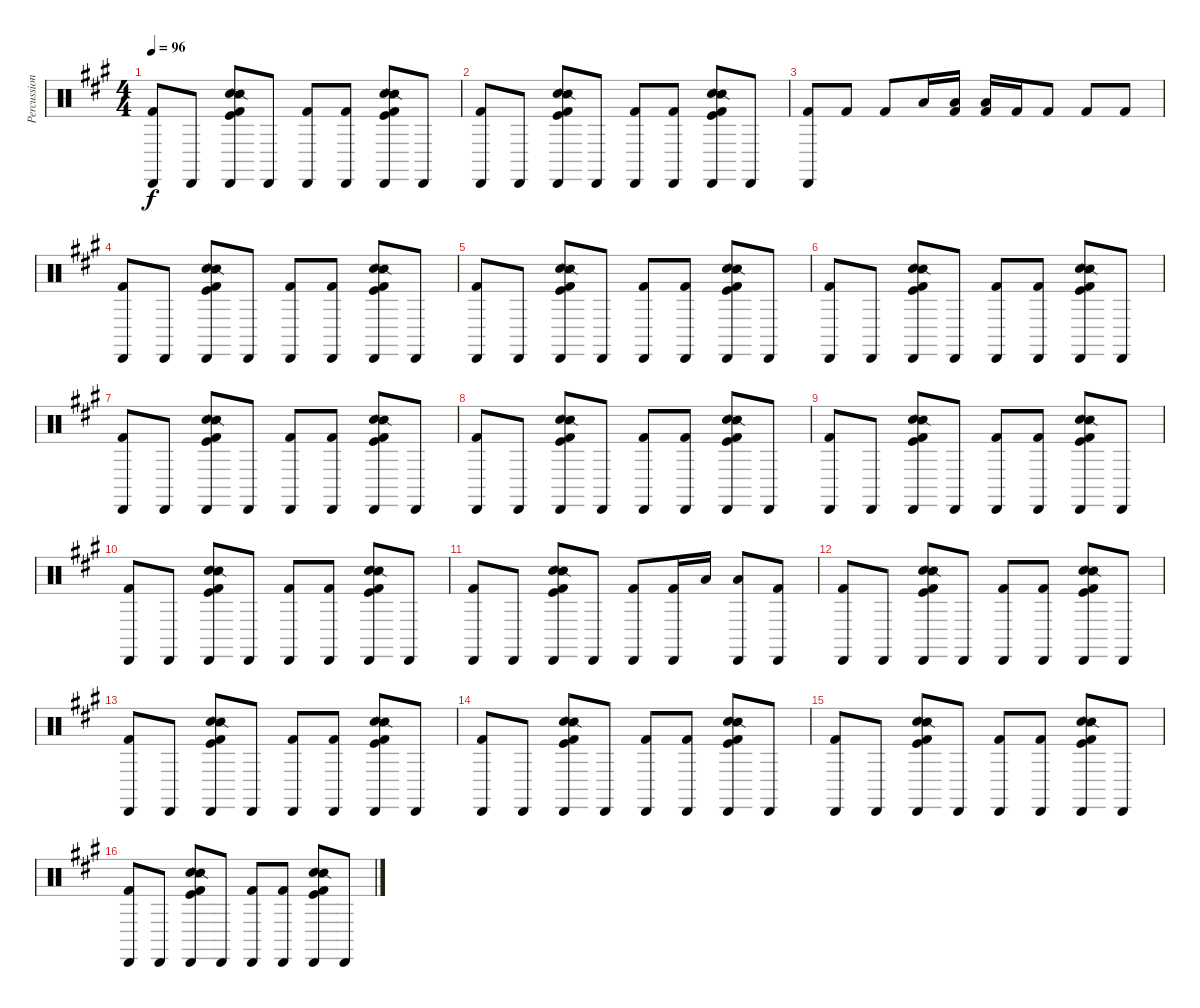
\track ("Percussion" "Percussion") {instrument percussion}
\staff {score}
\articulation defaults
\ts (4 4)
\tempo 96
\clef neutral
\ks a
("Kick (hit) 2" "Cabasa (hit)").8{dy f} "Cabasa (hit)".8 ("Hand Clap (hit)" "Snare (side stick) 2" "Kick (hit) 2" "Kick (hit)" "Cabasa (hit)").8 "Cabasa (hit)".8 ("Kick (hit) 2" "Cabasa (hit)").8 ("Kick (hit) 2" "Cabasa (hit)").8 ("Hand Clap (hit)" "Snare (side stick) 2" "Kick (hit) 2" "Kick (hit)" "Cabasa (hit)").8 "Cabasa (hit)".8 |
("Kick (hit) 2" "Cabasa (hit)").8 "Cabasa (hit)".8 ("Hand Clap (hit)" "Snare (side stick) 2" "Kick (hit) 2" "Kick (hit)" "Cabasa (hit)").8 "Cabasa (hit)".8 ("Kick (hit) 2" "Cabasa (hit)").8 ("Kick (hit) 2" "Cabasa (hit)").8 ("Hand Clap (hit)" "Snare (side stick) 2" "Kick (hit) 2" "Kick (hit)" "Cabasa (hit)").8 "Cabasa (hit)".8 |
("Kick (hit) 2" "Cabasa (hit)").8 "Kick (hit) 2".8 "Kick (hit) 2".8 "Low Floor Tom (hit)".16 ("Kick (hit) 2" "Low Floor Tom (hit)").16 ("Kick (hit) 2" "Low Floor Tom (hit)").16 "Kick (hit) 2".16 "Kick (hit) 2".8 "Kick (hit) 2".8 "Kick (hit) 2".8 |
("Kick (hit) 2" "Cabasa (hit)").8 "Cabasa (hit)".8 ("Hand Clap (hit)" "Snare (side stick) 2" "Kick (hit) 2" "Kick (hit)" "Cabasa (hit)").8 "Cabasa (hit)".8 ("Kick (hit) 2" "Cabasa (hit)").8 ("Kick (hit) 2" "Cabasa (hit)").8 ("Hand Clap (hit)" "Snare (side stick) 2" "Kick (hit) 2" "Kick (hit)" "Cabasa (hit)").8 "Cabasa (hit)".8 |
("Kick (hit) 2" "Cabasa (hit)").8 "Cabasa (hit)".8 ("Hand Clap (hit)" "Snare (side stick) 2" "Kick (hit) 2" "Kick (hit)" "Cabasa (hit)").8 "Cabasa (hit)".8 ("Kick (hit) 2" "Cabasa (hit)").8 ("Kick (hit) 2" "Cabasa (hit)").8 ("Hand Clap (hit)" "Snare (side stick) 2" "Kick (hit) 2" "Kick (hit)" "Cabasa (hit)").8 "Cabasa (hit)".8 |
("Kick (hit) 2" "Cabasa (hit)").8 "Cabasa (hit)".8 ("Hand Clap (hit)" "Snare (side stick) 2" "Kick (hit) 2" "Kick (hit)" "Cabasa (hit)").8 "Cabasa (hit)".8 ("Kick (hit) 2" "Cabasa (hit)").8 ("Kick (hit) 2" "Cabasa (hit)").8 ("Hand Clap (hit)" "Snare (side stick) 2" "Kick (hit) 2" "Kick (hit)" "Cabasa (hit)").8 "Cabasa (hit)".8 |
("Kick (hit) 2" "Cabasa (hit)").8 "Cabasa (hit)".8 ("Hand Clap (hit)" "Snare (side stick) 2" "Kick (hit) 2" "Kick (hit)" "Cabasa (hit)").8 "Cabasa (hit)".8 ("Kick (hit) 2" "Cabasa (hit)").8 ("Kick (hit) 2" "Cabasa (hit)").8 ("Hand Clap (hit)" "Snare (side stick) 2" "Kick (hit) 2" "Kick (hit)" "Cabasa (hit)").8 "Cabasa (hit)".8 |
("Kick (hit) 2" "Cabasa (hit)").8 "Cabasa (hit)".8 ("Hand Clap (hit)" "Snare (side stick) 2" "Kick (hit) 2" "Kick (hit)" "Cabasa (hit)").8 "Cabasa (hit)".8 ("Kick (hit) 2" "Cabasa (hit)").8 ("Kick (hit) 2" "Cabasa (hit)").8 ("Hand Clap (hit)" "Snare (side stick) 2" "Kick (hit) 2" "Kick (hit)" "Cabasa (hit)").8 "Cabasa (hit)".8 |
("Kick (hit) 2" "Cabasa (hit)").8 "Cabasa (hit)".8 ("Hand Clap (hit)" "Snare (side stick) 2" "Kick (hit) 2" "Kick (hit)" "Cabasa (hit)").8 "Cabasa (hit)".8 ("Kick (hit) 2" "Cabasa (hit)").8 ("Kick (hit) 2" "Cabasa (hit)").8 ("Hand Clap (hit)" "Snare (side stick) 2" "Kick (hit) 2" "Kick (hit)" "Cabasa (hit)").8 "Cabasa (hit)".8 |
("Kick (hit) 2" "Cabasa (hit)").8 "Cabasa (hit)".8 ("Hand Clap (hit)" "Snare (side stick) 2" "Kick (hit) 2" "Kick (hit)" "Cabasa (hit)").8 "Cabasa (hit)".8 ("Kick (hit) 2" "Cabasa (hit)").8 ("Kick (hit) 2" "Cabasa (hit)").8 ("Hand Clap (hit)" "Snare (side stick) 2" "Kick (hit) 2" "Kick (hit)" "Cabasa (hit)").8 "Cabasa (hit)".8 |
("Kick (hit) 2" "Cabasa (hit)").8 "Cabasa (hit)".8 ("Hand Clap (hit)" "Snare (side stick) 2" "Kick (hit) 2" "Kick (hit)" "Cabasa (hit)").8 "Cabasa (hit)".8 ("Kick (hit) 2" "Cabasa (hit)").8 ("Kick (hit) 2" "Cabasa (hit)").16 "Low Floor Tom (hit)".16 ("Low Floor Tom (hit)" "Cabasa (hit)").8 ("Kick (hit) 2" "Cabasa (hit)").8 |
("Kick (hit) 2" "Cabasa (hit)").8 "Cabasa (hit)".8 ("Hand Clap (hit)" "Snare (side stick) 2" "Kick (hit) 2" "Kick (hit)" "Cabasa (hit)").8 "Cabasa (hit)".8 ("Kick (hit) 2" "Cabasa (hit)").8 ("Kick (hit) 2" "Cabasa (hit)").8 ("Hand Clap (hit)" "Snare (side stick) 2" "Kick (hit) 2" "Kick (hit)" "Cabasa (hit)").8 "Cabasa (hit)".8 |
("Kick (hit) 2" "Cabasa (hit)").8 "Cabasa (hit)".8 ("Hand Clap (hit)" "Snare (side stick) 2" "Kick (hit) 2" "Kick (hit)" "Cabasa (hit)").8 "Cabasa (hit)".8 ("Kick (hit) 2" "Cabasa (hit)").8 ("Kick (hit) 2" "Cabasa (hit)").8 ("Hand Clap (hit)" "Snare (side stick) 2" "Kick (hit) 2" "Kick (hit)" "Cabasa (hit)").8 "Cabasa (hit)".8 |
("Kick (hit) 2" "Cabasa (hit)").8 "Cabasa (hit)".8 ("Hand Clap (hit)" "Snare (side stick) 2" "Kick (hit) 2" "Kick (hit)" "Cabasa (hit)").8 "Cabasa (hit)".8 ("Kick (hit) 2" "Cabasa (hit)").8 ("Kick (hit) 2" "Cabasa (hit)").8 ("Hand Clap (hit)" "Snare (side stick) 2" "Kick (hit) 2" "Kick (hit)" "Cabasa (hit)").8 "Cabasa (hit)".8 |
("Kick (hit) 2" "Cabasa (hit)").8 "Cabasa (hit)".8 ("Hand Clap (hit)" "Snare (side stick) 2" "Kick (hit) 2" "Kick (hit)" "Cabasa (hit)").8 "Cabasa (hit)".8 ("Kick (hit) 2" "Cabasa (hit)").8 ("Kick (hit) 2" "Cabasa (hit)").8 ("Hand Clap (hit)" "Snare (side stick) 2" "Kick (hit) 2" "Kick (hit)" "Cabasa (hit)").8 "Cabasa (hit)".8 |
("Kick (hit) 2" "Cabasa (hit)").8 "Cabasa (hit)".8 ("Hand Clap (hit)" "Snare (side stick) 2" "Kick (hit) 2" "Kick (hit)" "Cabasa (hit)").8 "Cabasa (hit)".8 ("Kick (hit) 2" "Cabasa (hit)").8 ("Kick (hit) 2" "Cabasa (hit)").8 ("Hand Clap (hit)" "Snare (side stick) 2" "Kick (hit) 2" "Kick (hit)" "Cabasa (hit)").8 "Cabasa (hit)".8
